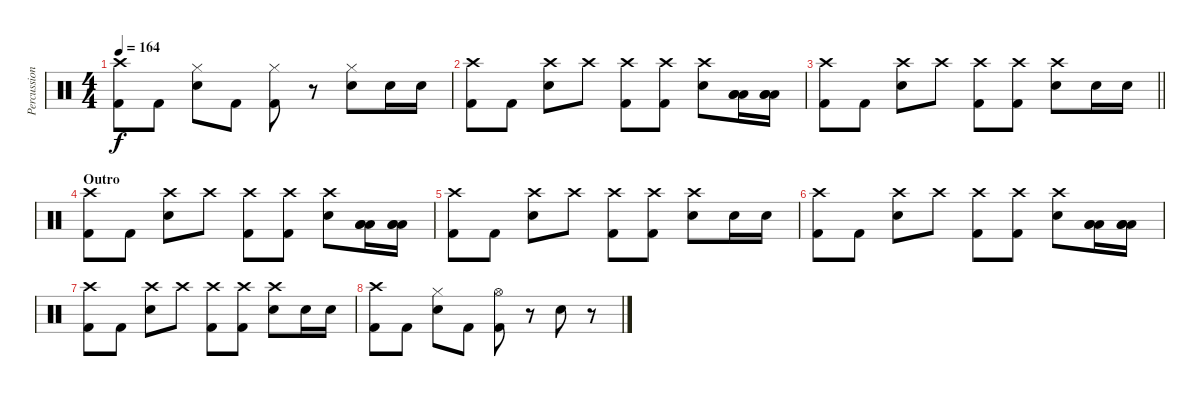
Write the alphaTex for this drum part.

\track ("Percussion" "Percussion") {instrument percussion}
\staff {score}
\articulation defaults
\ts (4 4)
\tempo 164
\clef neutral
\ks c
("Kick (hit) 2" "Crash high (hit)").8{dy f} "Kick (hit) 2".8 ("Snare (hit) 2" "Hi-Hat (closed)").8 "Kick (hit) 2".8 ("Kick (hit) 2" "Hi-Hat (closed)").8 r.8 ("Snare (hit) 2" "Hi-Hat (closed)").8 "Snare (hit) 2".16 "Snare (hit) 2".16 |
("Kick (hit) 2" "Crash high (hit)").8 "Kick (hit) 2".8 ("Crash high (hit)" "Snare (hit) 2").8 "Crash high (hit)".8 ("Kick (hit) 2" "Crash high (hit)").8 ("Kick (hit) 2" "Crash high (hit)").8 ("Crash high (hit)" "Snare (hit) 2").8 ("Low Floor Tom (hit)" "Low Floor Tom (hit)" "Low Floor Tom (hit)").16 ("Low Floor Tom (hit)" "Low Floor Tom (hit)" "Low Floor Tom (hit)").16 |
\barLineRight lightlight
("Kick (hit) 2" "Crash high (hit)").8 "Kick (hit) 2".8 ("Crash high (hit)" "Snare (hit) 2").8 "Crash high (hit)".8 ("Kick (hit) 2" "Crash high (hit)").8 ("Kick (hit) 2" "Crash high (hit)").8 ("Crash high (hit)" "Snare (hit) 2").8 "Snare (hit) 2".16 "Snare (hit) 2".16 |
\section ("" "Outro")
("Kick (hit) 2" "Crash high (hit)").8 "Kick (hit) 2".8 ("Crash high (hit)" "Snare (hit) 2").8 "Crash high (hit)".8 ("Kick (hit) 2" "Crash high (hit)").8 ("Kick (hit) 2" "Crash high (hit)").8 ("Crash high (hit)" "Snare (hit) 2").8 ("Low Floor Tom (hit)" "Low Floor Tom (hit)" "Low Floor Tom (hit)").16 ("Low Floor Tom (hit)" "Low Floor Tom (hit)" "Low Floor Tom (hit)").16 |
("Kick (hit) 2" "Crash high (hit)").8 "Kick (hit) 2".8 ("Crash high (hit)" "Snare (hit) 2").8 "Crash high (hit)".8 ("Kick (hit) 2" "Crash high (hit)").8 ("Kick (hit) 2" "Crash high (hit)").8 ("Crash high (hit)" "Snare (hit) 2").8 "Snare (hit) 2".16 "Snare (hit) 2".16 |
("Kick (hit) 2" "Crash high (hit)").8 "Kick (hit) 2".8 ("Crash high (hit)" "Snare (hit) 2").8 "Crash high (hit)".8 ("Kick (hit) 2" "Crash high (hit)").8 ("Kick (hit) 2" "Crash high (hit)").8 ("Crash high (hit)" "Snare (hit) 2").8 ("Low Floor Tom (hit)" "Low Floor Tom (hit)" "Low Floor Tom (hit)").16 ("Low Floor Tom (hit)" "Low Floor Tom (hit)" "Low Floor Tom (hit)").16 |
("Kick (hit) 2" "Crash high (hit)").8 "Kick (hit) 2".8 ("Crash high (hit)" "Snare (hit) 2").8 "Crash high (hit)".8 ("Kick (hit) 2" "Crash high (hit)").8 ("Kick (hit) 2" "Crash high (hit)").8 ("Crash high (hit)" "Snare (hit) 2").8 "Snare (hit) 2".16 "Snare (hit) 2".16 |
("Kick (hit) 2" "Crash high (hit)").8 "Kick (hit) 2".8 ("Snare (hit) 2" "Hi-Hat (closed)").8 "Kick (hit) 2".8 ("Kick (hit) 2" "Hi-Hat (open)").8 r.8 "Snare (hit) 2".8 r.8
